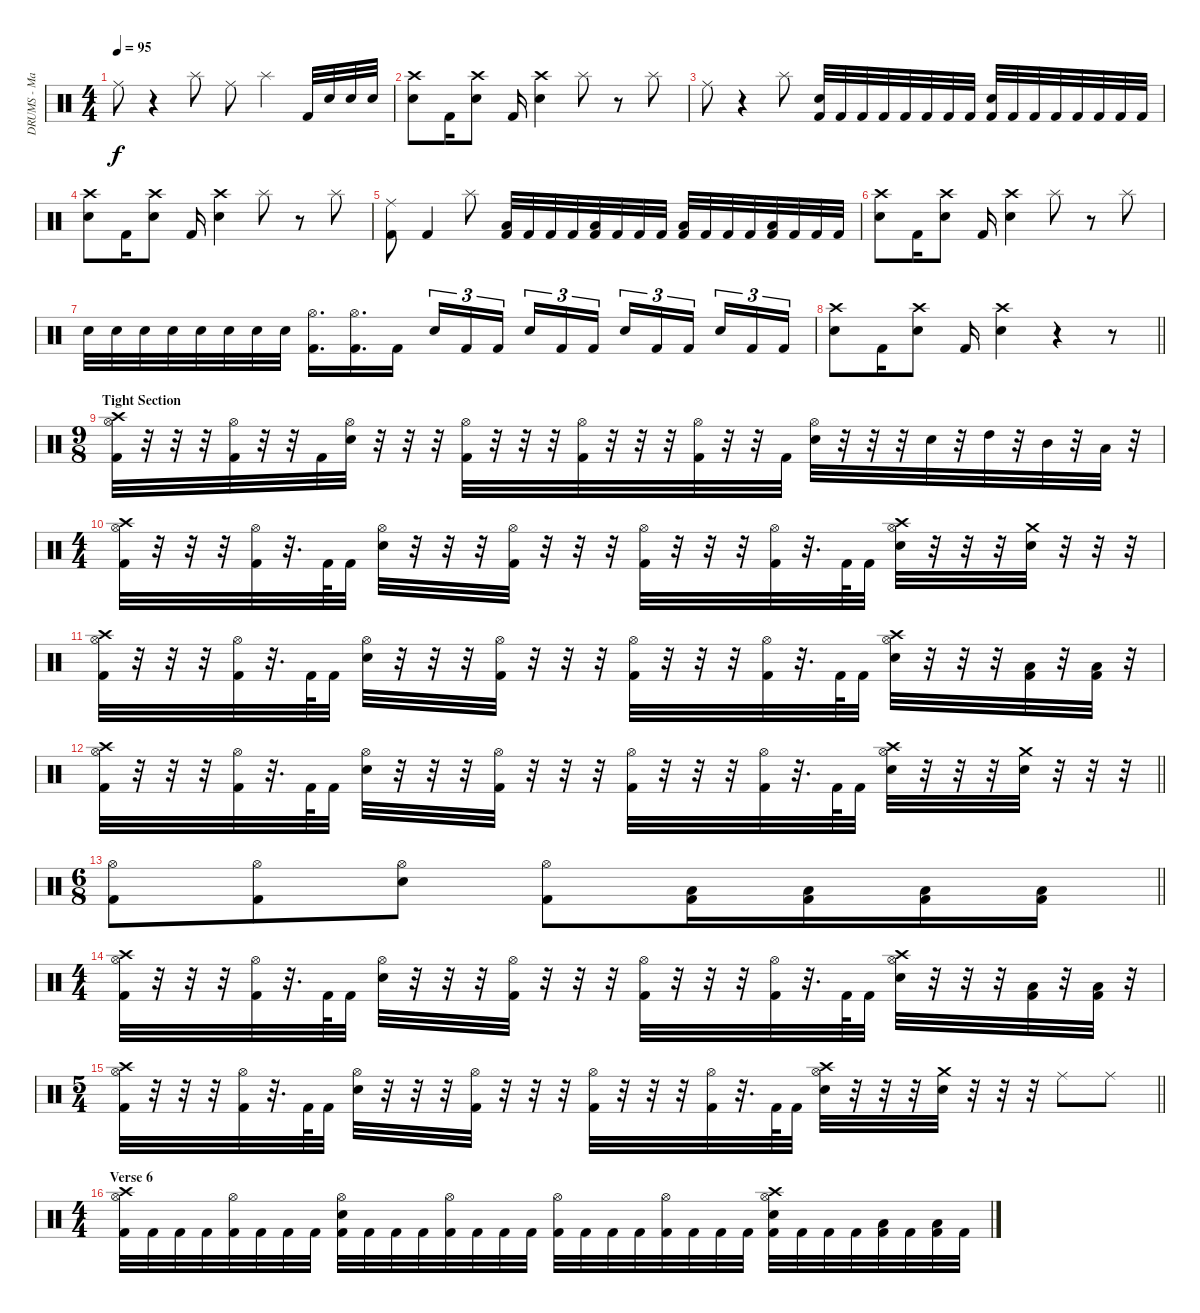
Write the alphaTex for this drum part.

\track ("DRUMS - Mario Duplantier" "DRUMS - Ma") {instrument percussion}
\staff {score}
\articulation defaults
\ts (4 4)
\tempo 95
\clef neutral
\ks c "Ride (middle)".8{dy f}
r.4 "Splash (hit)".8 "Ride (middle)".8 "Splash (hit)".4 "Kick (hit) 2".32 "Electric Snare (hit)".32 "Electric Snare (hit)".32 "Electric Snare (hit)".32 |
("Crash high (hit)" "Electric Snare (hit)").8 "Kick (hit) 2".16 ("Crash high (hit)" "Electric Snare (hit)").8 "Kick (hit) 2".16 ("Crash high (hit)" "Electric Snare (hit)").4 "Splash (hit)".8 r.8 "Splash (hit)".8 |
"Ride (middle)".8 r.4 "Splash (hit)".8 ("Electric Snare (hit)" "Kick (hit) 2").32 "Kick (hit) 2".32 "Kick (hit) 2".32 "Kick (hit) 2".32 "Kick (hit) 2".32 "Kick (hit) 2".32 "Kick (hit) 2".32 "Kick (hit) 2".32 ("Electric Snare (hit)" "Kick (hit) 2").32 "Kick (hit) 2".32 "Kick (hit) 2".32 "Kick (hit) 2".32 "Kick (hit) 2".32 "Kick (hit) 2".32 "Kick (hit) 2".32 "Kick (hit) 2".32 |
("Crash high (hit)" "Electric Snare (hit)").8 "Kick (hit) 2".16 ("Crash high (hit)" "Electric Snare (hit)").8 "Kick (hit) 2".16 ("Crash high (hit)" "Electric Snare (hit)").4 "Splash (hit)".8 r.8 "Splash (hit)".8 |
("Ride (middle)" "Kick (hit) 2").8 "Kick (hit) 2".4 "Splash (hit)".8 ("Low Tom (hit)" "Kick (hit) 2").32 "Kick (hit) 2".32 "Kick (hit) 2".32 "Kick (hit) 2".32 ("Low Tom (hit)" "Kick (hit) 2").32 "Kick (hit) 2".32 "Kick (hit) 2".32 "Kick (hit) 2".32 ("Low Tom (hit)" "Kick (hit) 2").32 "Kick (hit) 2".32 "Kick (hit) 2".32 "Kick (hit) 2".32 ("Low Tom (hit)" "Kick (hit) 2").32 "Kick (hit) 2".32 "Kick (hit) 2".32 "Kick (hit) 2".32 |
("Crash high (hit)" "Electric Snare (hit)").8 "Kick (hit) 2".16 ("Crash high (hit)" "Electric Snare (hit)").8 "Kick (hit) 2".16 ("Crash high (hit)" "Electric Snare (hit)").4 "Splash (hit)".8 r.8 "Splash (hit)".8 |
"Electric Snare (hit)".32 "Electric Snare (hit)".32 "Electric Snare (hit)".32 "Electric Snare (hit)".32 "Electric Snare (hit)".32 "Electric Snare (hit)".32 "Electric Snare (hit)".32 "Electric Snare (hit)".32 ("Hi-Hat (open)" "Kick (hit) 2").16{d} ("Hi-Hat (open)" "Kick (hit) 2").16{d} "Kick (hit) 2".16 "Electric Snare (hit)".16{tu (3 2)} "Kick (hit) 2".16{tu (3 2)} "Kick (hit) 2".16{tu (3 2) beam splitsecondary} "Electric Snare (hit)".16{tu (3 2)} "Kick (hit) 2".16{tu (3 2)} "Kick (hit) 2".16{tu (3 2)} "Electric Snare (hit)".16{tu (3 2)} "Kick (hit) 2".16{tu (3 2)} "Kick (hit) 2".16{tu (3 2) beam splitsecondary} "Electric Snare (hit)".16{tu (3 2)} "Kick (hit) 2".16{tu (3 2)} "Kick (hit) 2".16{tu (3 2)} |
\barLineRight lightlight
("Crash high (hit)" "Electric Snare (hit)").8 "Kick (hit) 2".16 ("Crash high (hit)" "Electric Snare (hit)").8 "Kick (hit) 2".16 ("Crash high (hit)" "Electric Snare (hit)").4 r.4 r.8 |
\ts (9 8)
\section ("" "Tight Section")
("Crash high (hit)" "Hi-Hat (open)" "Kick (hit) 2").32 r.32 r.32 r.32 ("Hi-Hat (open)" "Kick (hit) 2").32 r.32 r.32 "Kick (hit) 2".32 ("Hi-Hat (open)" "Electric Snare (hit)").32 r.32 r.32 r.32 ("Hi-Hat (open)" "Kick (hit) 2").32 r.32 r.32 r.32 ("Hi-Hat (open)" "Kick (hit) 2").32 r.32 r.32 r.32 ("Hi-Hat (open)" "Kick (hit) 2").32 r.32 r.32 "Kick (hit) 2".32 ("Hi-Hat (open)" "Electric Snare (hit)").32 r.32 r.32 r.32 "Electric Snare (hit)".32 r.32 "High Tom (hit)".32 r.32 "Mid Tom (hit)".32 r.32 "Low Tom (hit)".32 r.32 |
\ts (4 4)
("Crash high (hit)" "Hi-Hat (open)" "Kick (hit) 2").32 r.32 r.32 r.32 ("Hi-Hat (open)" "Kick (hit) 2").32 r.32{d} "Kick (hit) 2".64 "Kick (hit) 2".32 ("Hi-Hat (open)" "Electric Snare (hit)").32 r.32 r.32 r.32 ("Hi-Hat (open)" "Kick (hit) 2").32 r.32 r.32 r.32 ("Hi-Hat (open)" "Kick (hit) 2").32 r.32 r.32 r.32 ("Hi-Hat (open)" "Kick (hit) 2").32 r.32{d} "Kick (hit) 2".64 "Kick (hit) 2".32 ("Crash high (hit)" "Hi-Hat (open)" "Electric Snare (hit)").32 r.32 r.32 r.32 ("Crash medium (hit)" "Electric Snare (hit)").32 r.32 r.32 r.32 |
("Crash high (hit)" "Hi-Hat (open)" "Kick (hit) 2").32 r.32 r.32 r.32 ("Hi-Hat (open)" "Kick (hit) 2").32 r.32{d} "Kick (hit) 2".64 "Kick (hit) 2".32 ("Hi-Hat (open)" "Electric Snare (hit)").32 r.32 r.32 r.32 ("Hi-Hat (open)" "Kick (hit) 2").32 r.32 r.32 r.32 ("Hi-Hat (open)" "Kick (hit) 2").32 r.32 r.32 r.32 ("Hi-Hat (open)" "Kick (hit) 2").32 r.32{d} "Kick (hit) 2".64 "Kick (hit) 2".32 ("Crash high (hit)" "Hi-Hat (open)" "Electric Snare (hit)").32 r.32 r.32 r.32 ("Low Tom (hit)" "Kick (hit) 2").32 r.32 ("Low Tom (hit)" "Kick (hit) 2").32 r.32 |
\barLineRight lightlight
("Crash high (hit)" "Hi-Hat (open)" "Kick (hit) 2").32 r.32 r.32 r.32 ("Hi-Hat (open)" "Kick (hit) 2").32 r.32{d} "Kick (hit) 2".64 "Kick (hit) 2".32 ("Hi-Hat (open)" "Electric Snare (hit)").32 r.32 r.32 r.32 ("Hi-Hat (open)" "Kick (hit) 2").32 r.32 r.32 r.32 ("Hi-Hat (open)" "Kick (hit) 2").32 r.32 r.32 r.32 ("Hi-Hat (open)" "Kick (hit) 2").32 r.32{d} "Kick (hit) 2".64 "Kick (hit) 2".32 ("Crash high (hit)" "Hi-Hat (open)" "Electric Snare (hit)").32 r.32 r.32 r.32 ("Crash medium (hit)" "Electric Snare (hit)").32 r.32 r.32 r.32 |
\ts (6 8)
\section ("" "")
\barLineRight lightlight
("Hi-Hat (open)" "Kick (hit) 2").8 ("Hi-Hat (open)" "Kick (hit) 2").8 ("Hi-Hat (open)" "Electric Snare (hit)").8 ("Hi-Hat (open)" "Kick (hit) 2").8 ("Low Tom (hit)" "Kick (hit) 2").16 ("Low Tom (hit)" "Kick (hit) 2").16 ("Low Tom (hit)" "Kick (hit) 2").16 ("Low Tom (hit)" "Kick (hit) 2").16 |
\ts (4 4)
\section ("" "")
("Crash high (hit)" "Hi-Hat (open)" "Kick (hit) 2").32 r.32 r.32 r.32 ("Hi-Hat (open)" "Kick (hit) 2").32 r.32{d} "Kick (hit) 2".64 "Kick (hit) 2".32 ("Hi-Hat (open)" "Electric Snare (hit)").32 r.32 r.32 r.32 ("Hi-Hat (open)" "Kick (hit) 2").32 r.32 r.32 r.32 ("Hi-Hat (open)" "Kick (hit) 2").32 r.32 r.32 r.32 ("Hi-Hat (open)" "Kick (hit) 2").32 r.32{d} "Kick (hit) 2".64 "Kick (hit) 2".32 ("Crash high (hit)" "Hi-Hat (open)" "Electric Snare (hit)").32 r.32 r.32 r.32 ("Low Tom (hit)" "Kick (hit) 2").32 r.32 ("Low Tom (hit)" "Kick (hit) 2").32 r.32 |
\ts (5 4)
\barLineRight lightlight
("Crash high (hit)" "Hi-Hat (open)" "Kick (hit) 2").32 r.32 r.32 r.32 ("Hi-Hat (open)" "Kick (hit) 2").32 r.32{d} "Kick (hit) 2".64 "Kick (hit) 2".32 ("Hi-Hat (open)" "Electric Snare (hit)").32 r.32 r.32 r.32 ("Hi-Hat (open)" "Kick (hit) 2").32 r.32 r.32 r.32 ("Hi-Hat (open)" "Kick (hit) 2").32 r.32 r.32 r.32 ("Hi-Hat (open)" "Kick (hit) 2").32 r.32{d} "Kick (hit) 2".64 "Kick (hit) 2".32 ("Crash high (hit)" "Hi-Hat (open)" "Electric Snare (hit)").32 r.32 r.32 r.32 ("Crash medium (hit)" "Electric Snare (hit)").32 r.32 r.32 r.32 "Ride (middle)".8 "Ride (middle)".8 |
\ts (4 4)
\section ("" "Verse 6")
("Crash high (hit)" "Hi-Hat (open)" "Kick (hit) 2").32 "Kick (hit) 2".32 "Kick (hit) 2".32 "Kick (hit) 2".32 ("Hi-Hat (open)" "Kick (hit) 2").32 "Kick (hit) 2".32 "Kick (hit) 2".32 "Kick (hit) 2".32 ("Hi-Hat (open)" "Electric Snare (hit)" "Kick (hit) 2").32 "Kick (hit) 2".32 "Kick (hit) 2".32 "Kick (hit) 2".32 ("Hi-Hat (open)" "Kick (hit) 2").32 "Kick (hit) 2".32 "Kick (hit) 2".32 "Kick (hit) 2".32 ("Hi-Hat (open)" "Kick (hit) 2").32 "Kick (hit) 2".32 "Kick (hit) 2".32 "Kick (hit) 2".32 ("Hi-Hat (open)" "Kick (hit) 2").32 "Kick (hit) 2".32 "Kick (hit) 2".32 "Kick (hit) 2".32 ("Crash high (hit)" "Hi-Hat (open)" "Electric Snare (hit)" "Kick (hit) 2").32 "Kick (hit) 2".32 "Kick (hit) 2".32 "Kick (hit) 2".32 ("Low Tom (hit)" "Kick (hit) 2").32 "Kick (hit) 2".32 ("Low Tom (hit)" "Kick (hit) 2").32 "Kick (hit) 2".32
